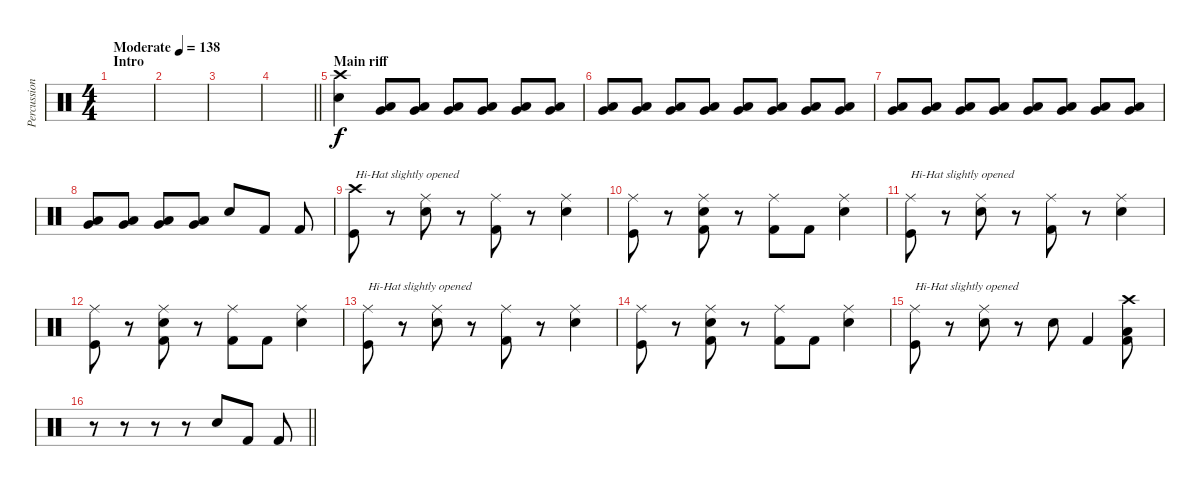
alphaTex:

\track ("Percussion" "Percussion") {instrument percussion}
\staff {score}
\articulation defaults
\ts (4 4)
\section ("" "Intro")
\tempo (138 "Moderate")
\clef neutral
\ks c
|
|
|
\barLineRight lightlight
|
\section ("" "Main riff")
("Crash high (hit)" "Electric Snare (hit)").4 ("Very Low Tom (hit)" "Low Floor Tom (hit)").8 ("Very Low Tom (hit)" "Low Floor Tom (hit)").8 ("Very Low Tom (hit)" "Low Floor Tom (hit)").8 ("Very Low Tom (hit)" "Low Floor Tom (hit)").8 ("Very Low Tom (hit)" "Low Floor Tom (hit)").8 ("Very Low Tom (hit)" "Low Floor Tom (hit)").8 |
("Very Low Tom (hit)" "Low Floor Tom (hit)").8 ("Very Low Tom (hit)" "Low Floor Tom (hit)").8 ("Very Low Tom (hit)" "Low Floor Tom (hit)").8 ("Very Low Tom (hit)" "Low Floor Tom (hit)").8 ("Very Low Tom (hit)" "Low Floor Tom (hit)").8 ("Very Low Tom (hit)" "Low Floor Tom (hit)").8 ("Very Low Tom (hit)" "Low Floor Tom (hit)").8 ("Very Low Tom (hit)" "Low Floor Tom (hit)").8 |
("Very Low Tom (hit)" "Low Floor Tom (hit)").8 ("Very Low Tom (hit)" "Low Floor Tom (hit)").8 ("Very Low Tom (hit)" "Low Floor Tom (hit)").8 ("Very Low Tom (hit)" "Low Floor Tom (hit)").8 ("Very Low Tom (hit)" "Low Floor Tom (hit)").8 ("Very Low Tom (hit)" "Low Floor Tom (hit)").8 ("Very Low Tom (hit)" "Low Floor Tom (hit)").8 ("Very Low Tom (hit)" "Low Floor Tom (hit)").8 |
("Very Low Tom (hit)" "Low Floor Tom (hit)").8 ("Very Low Tom (hit)" "Low Floor Tom (hit)").8 ("Very Low Tom (hit)" "Low Floor Tom (hit)").8 ("Very Low Tom (hit)" "Low Floor Tom (hit)").8 "Electric Snare (hit)".8 "Kick (hit) 2".8 "Kick (hit) 2".8 |
("Crash high (hit)" "Kick (hit)").8{txt "Hi-Hat slightly opened"} r.8 ("Ride (middle)" "Electric Snare (hit)").8 r.8 ("Ride (middle)" "Kick (hit) 2").8 r.8 ("Ride (middle)" "Electric Snare (hit)").4 |
("Ride (middle)" "Kick (hit)").8 r.8 ("Ride (middle)" "Electric Snare (hit)" "Kick (hit) 2").8 r.8 ("Ride (middle)" "Kick (hit) 2").8 "Kick (hit) 2".8 ("Ride (middle)" "Electric Snare (hit)").4 |
("Ride (middle)" "Kick (hit)").8{txt "Hi-Hat slightly opened"} r.8 ("Ride (middle)" "Electric Snare (hit)").8 r.8 ("Ride (middle)" "Kick (hit) 2").8 r.8 ("Ride (middle)" "Electric Snare (hit)").4 |
("Ride (middle)" "Kick (hit)").8 r.8 ("Ride (middle)" "Electric Snare (hit)" "Kick (hit) 2").8 r.8 ("Ride (middle)" "Kick (hit) 2").8 "Kick (hit) 2".8 ("Ride (middle)" "Electric Snare (hit)").4 |
("Ride (middle)" "Kick (hit)").8{txt "Hi-Hat slightly opened"} r.8 ("Ride (middle)" "Electric Snare (hit)").8 r.8 ("Ride (middle)" "Kick (hit) 2").8 r.8 ("Ride (middle)" "Electric Snare (hit)").4 |
("Ride (middle)" "Kick (hit)").8 r.8 ("Ride (middle)" "Electric Snare (hit)" "Kick (hit) 2").8 r.8 ("Ride (middle)" "Kick (hit) 2").8 "Kick (hit) 2".8 ("Ride (middle)" "Electric Snare (hit)").4 |
("Ride (middle)" "Kick (hit)").8{txt "Hi-Hat slightly opened"} r.8 ("Ride (middle)" "Electric Snare (hit)").8 r.8 "Electric Snare (hit)".8 "Kick (hit) 2".4 ("Crash high (hit)" "Low Floor Tom (hit)" "Kick (hit) 2").8 |
\barLineRight lightlight
r.8 r.8 r.8 r.8 "Electric Snare (hit)".8 "Kick (hit) 2".8 "Kick (hit) 2".8
